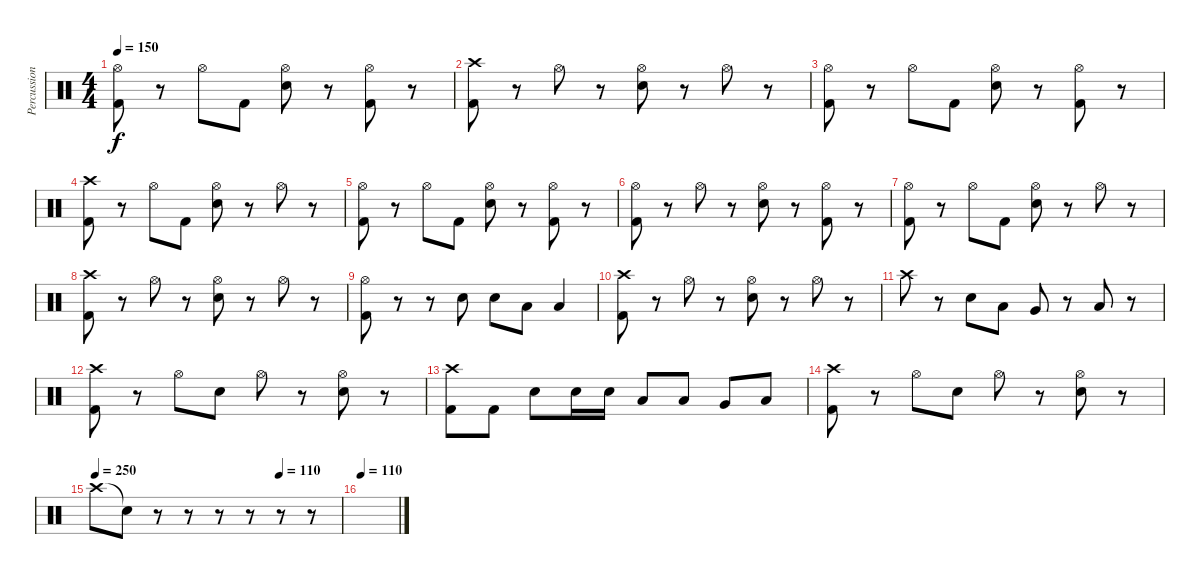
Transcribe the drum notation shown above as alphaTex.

\track ("Percussion" "Percussion") {instrument percussion}
\staff {score}
\articulation defaults
\ts (4 4)
\tempo 150
\clef neutral
\ks c
("Hi-Hat (open)" "Kick (hit) 2").8{dy f} r.8 "Hi-Hat (open)".8 "Kick (hit) 2".8 ("Hi-Hat (open)" "Electric Snare (hit)").8 r.8 ("Hi-Hat (open)" "Kick (hit) 2").8 r.8 |
("Crash high (hit)" "Kick (hit) 2").8 r.8 "Hi-Hat (open)".8 r.8 ("Hi-Hat (open)" "Electric Snare (hit)").8 r.8 "Hi-Hat (open)".8 r.8 |
("Hi-Hat (open)" "Kick (hit) 2").8 r.8 "Hi-Hat (open)".8 "Kick (hit) 2".8 ("Hi-Hat (open)" "Electric Snare (hit)").8 r.8 ("Hi-Hat (open)" "Kick (hit) 2").8 r.8 |
("Crash high (hit)" "Kick (hit) 2").8 r.8 "Hi-Hat (open)".8 "Kick (hit) 2".8 ("Hi-Hat (open)" "Electric Snare (hit)").8 r.8 "Hi-Hat (open)".8 r.8 |
("Hi-Hat (open)" "Kick (hit) 2").8 r.8 "Hi-Hat (open)".8 "Kick (hit) 2".8 ("Hi-Hat (open)" "Electric Snare (hit)").8 r.8 ("Hi-Hat (open)" "Kick (hit) 2").8 r.8 |
("Hi-Hat (open)" "Kick (hit) 2").8 r.8 "Hi-Hat (open)".8 r.8 ("Hi-Hat (open)" "Electric Snare (hit)").8 r.8 ("Hi-Hat (open)" "Kick (hit) 2").8 r.8 |
("Hi-Hat (open)" "Kick (hit) 2").8 r.8 "Hi-Hat (open)".8 "Kick (hit) 2".8 ("Hi-Hat (open)" "Electric Snare (hit)").8 r.8 "Hi-Hat (open)".8 r.8 |
("Crash high (hit)" "Kick (hit) 2").8 r.8 "Hi-Hat (open)".8 r.8 ("Hi-Hat (open)" "Electric Snare (hit)").8 r.8 "Hi-Hat (open)".8 r.8 |
("Hi-Hat (open)" "Kick (hit) 2").8 r.8 r.8 "Electric Snare (hit)".8 "Electric Snare (hit)".8 "Low Tom (hit)".8 "Low Tom (hit)".4 |
("Crash high (hit)" "Kick (hit) 2").8 r.8 "Hi-Hat (open)".8 r.8 ("Hi-Hat (open)" "Electric Snare (hit)").8 r.8 "Hi-Hat (open)".8 r.8 |
"Crash high (hit)".8 r.8 "Electric Snare (hit)".8 "Low Tom (hit)".8 "Very Low Tom (hit)".8 r.8 "Low Floor Tom (hit)".8 r.8 |
("Crash high (hit)" "Kick (hit) 2").8 r.8 "Hi-Hat (open)".8 "Electric Snare (hit)".8 "Hi-Hat (open)".8 r.8 ("Hi-Hat (open)" "Electric Snare (hit)").8 r.8 |
("Crash high (hit)" "Kick (hit) 2").8 "Kick (hit) 2".8 "Electric Snare (hit)".8 "Electric Snare (hit)".16 "Electric Snare (hit)".16 "Low Tom (hit)".8 "Low Tom (hit)".8 "Very Low Tom (hit)".8 "Low Floor Tom (hit)".8 |
("Crash high (hit)" "Kick (hit) 2").8 r.8 "Hi-Hat (open)".8 "Electric Snare (hit)".8 "Hi-Hat (open)".8 r.8 ("Hi-Hat (open)" "Electric Snare (hit)").8 r.8 |
\tempo 250
\tempo (110 0.75)
"Crash high (hit)".8 "Snare (hit)"{t}.8 r.8 r.8 r.8 r.8 r.8 r.8 |
\tempo 110
